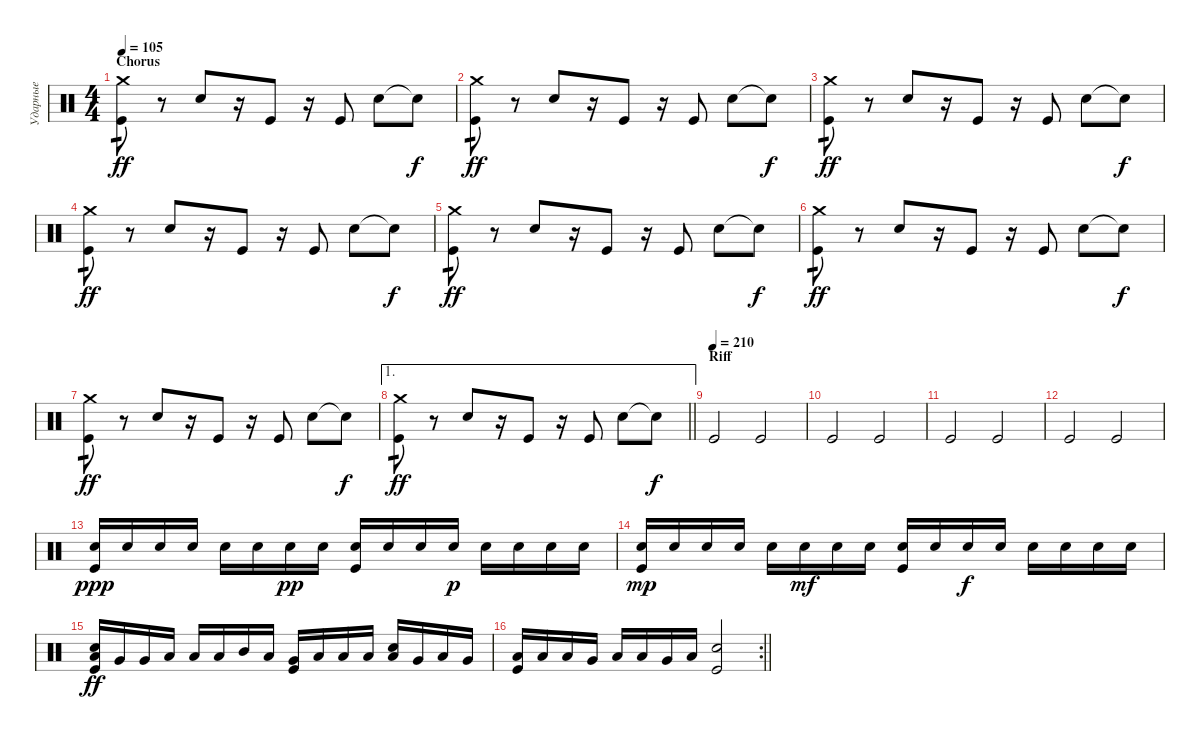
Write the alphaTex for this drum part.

\track ("Ударные" "Ударные") {instrument percussion}
\staff {score}
\articulation defaults
\ts (4 4)
\section ("" "Chorus")
\tempo 105
\clef neutral
\ks c
("Crash medium (hit)" "Kick (hit)").8{tp 1 dy ff} r.8 "Electric Snare (hit)".8 r.16 "Kick (hit)".8 r.16 "Kick (hit)".8 "Electric Snare (hit)".8 "Snare (hit)"{t}.8{dy f} |
("Crash medium (hit)" "Kick (hit)").8{tp 1 dy ff} r.8 "Electric Snare (hit)".8 r.16 "Kick (hit)".8 r.16 "Kick (hit)".8 "Electric Snare (hit)".8 "Snare (hit)"{t}.8{dy f} |
("Crash medium (hit)" "Kick (hit)").8{tp 1 dy ff} r.8 "Electric Snare (hit)".8 r.16 "Kick (hit)".8 r.16 "Kick (hit)".8 "Electric Snare (hit)".8 "Snare (hit)"{t}.8{dy f} |
("Crash medium (hit)" "Kick (hit)").8{tp 1 dy ff} r.8 "Electric Snare (hit)".8 r.16 "Kick (hit)".8 r.16 "Kick (hit)".8 "Electric Snare (hit)".8 "Snare (hit)"{t}.8{dy f} |
("Crash medium (hit)" "Kick (hit)").8{tp 1 dy ff} r.8 "Electric Snare (hit)".8 r.16 "Kick (hit)".8 r.16 "Kick (hit)".8 "Electric Snare (hit)".8 "Snare (hit)"{t}.8{dy f} |
("Crash medium (hit)" "Kick (hit)").8{tp 1 dy ff} r.8 "Electric Snare (hit)".8 r.16 "Kick (hit)".8 r.16 "Kick (hit)".8 "Electric Snare (hit)".8 "Snare (hit)"{t}.8{dy f} |
("Crash medium (hit)" "Kick (hit)").8{tp 1 dy ff} r.8 "Electric Snare (hit)".8 r.16 "Kick (hit)".8 r.16 "Kick (hit)".8 "Electric Snare (hit)".8 "Snare (hit)"{t}.8{dy f} |
\ae 1
\barLineRight lightlight
("Crash medium (hit)" "Kick (hit)").8{tp 1 dy ff} r.8 "Electric Snare (hit)".8 r.16 "Kick (hit)".8 r.16 "Kick (hit)".8 "Electric Snare (hit)".8 "Snare (hit)"{t}.8{dy f} |
\section ("" "Riff")
\tempo (210)
"Kick (hit)".2 "Kick (hit)".2 |
"Kick (hit)".2 "Kick (hit)".2 |
"Kick (hit)".2 "Kick (hit)".2 |
"Kick (hit)".2 "Kick (hit)".2 |
("Electric Snare (hit)" "Kick (hit)").16{dy ppp} "Electric Snare (hit)".16 "Electric Snare (hit)".16 "Electric Snare (hit)".16 "Electric Snare (hit)".16 "Electric Snare (hit)".16 "Electric Snare (hit)".16{dy pp} "Electric Snare (hit)".16 ("Electric Snare (hit)" "Kick (hit)").16 "Electric Snare (hit)".16 "Electric Snare (hit)".16 "Electric Snare (hit)".16{dy p} "Electric Snare (hit)".16 "Electric Snare (hit)".16 "Electric Snare (hit)".16 "Electric Snare (hit)".16 |
("Electric Snare (hit)" "Kick (hit)").16{dy mp} "Electric Snare (hit)".16 "Electric Snare (hit)".16 "Electric Snare (hit)".16 "Electric Snare (hit)".16 "Electric Snare (hit)".16{dy mf} "Electric Snare (hit)".16 "Electric Snare (hit)".16 ("Electric Snare (hit)" "Kick (hit)").16 "Electric Snare (hit)".16 "Electric Snare (hit)".16{dy f} "Electric Snare (hit)".16 "Electric Snare (hit)".16 "Electric Snare (hit)".16 "Electric Snare (hit)".16 "Electric Snare (hit)".16 |
("Electric Snare (hit)" "Low Tom (hit)" "Kick (hit)").16{dy ff} "Very Low Tom (hit)".16 "Very Low Tom (hit)".16 "Low Floor Tom (hit)".16 "Low Floor Tom (hit)".16 "Low Floor Tom (hit)".16 "Mid Tom (hit)".16 "Low Tom (hit)".16 ("Very Low Tom (hit)" "Kick (hit)").16 "Low Floor Tom (hit)".16 "Low Floor Tom (hit)".16 "Low Floor Tom (hit)".16 ("Electric Snare (hit)" "Low Tom (hit)").16 "Very Low Tom (hit)".16 "Low Floor Tom (hit)".16 "Very Low Tom (hit)".16 |
\rc 2
\barLineRight lightlight
("Low Floor Tom (hit)" "Kick (hit)").16 "Low Floor Tom (hit)".16 "Low Tom (hit)".16 "Very Low Tom (hit)".16 "Low Floor Tom (hit)".16 "Low Floor Tom (hit)".16 "Very Low Tom (hit)".16 "Low Floor Tom (hit)".16 ("Electric Snare (hit)" "Kick (hit)").2
